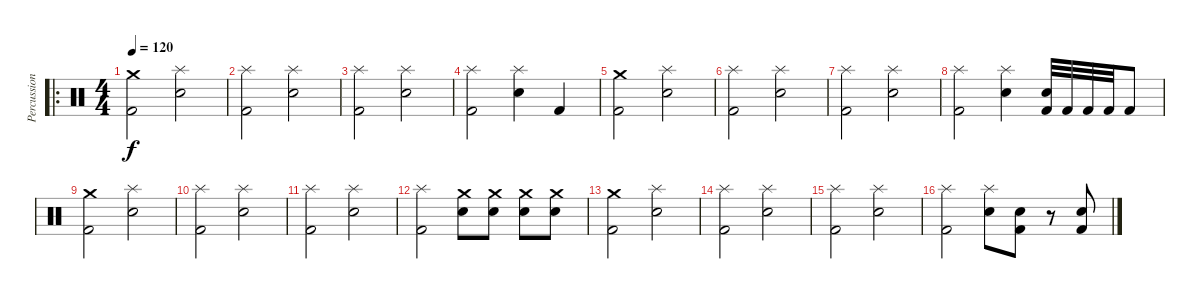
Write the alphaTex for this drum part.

\track ("Percussion" "Percussion") {instrument percussion}
\staff {score}
\articulation defaults
\ro
\ts (4 4)
\tempo 120
\clef neutral
\ks c
("Crash medium (hit)" "Kick (hit) 2").2{dy f} ("Splash (hit)" "Electric Snare (hit)").2 |
("Splash (hit)" "Kick (hit) 2").2 ("Splash (hit)" "Electric Snare (hit)").2 |
("Splash (hit)" "Kick (hit) 2").2 ("Splash (hit)" "Electric Snare (hit)").2 |
("Splash (hit)" "Kick (hit) 2").2 ("Splash (hit)" "Electric Snare (hit)").4 "Kick (hit) 2".4 |
("Crash medium (hit)" "Kick (hit) 2").2 ("Splash (hit)" "Electric Snare (hit)").2 |
("Splash (hit)" "Kick (hit) 2").2 ("Splash (hit)" "Electric Snare (hit)").2 |
("Splash (hit)" "Kick (hit) 2").2 ("Splash (hit)" "Electric Snare (hit)").2 |
("Splash (hit)" "Kick (hit) 2").2 ("Splash (hit)" "Electric Snare (hit)").4 ("Electric Snare (hit)" "Kick (hit) 2").32 "Kick (hit) 2".32 "Kick (hit) 2".32 "Kick (hit) 2".32 "Kick (hit) 2".8 |
("Crash medium (hit)" "Kick (hit) 2").2 ("Splash (hit)" "Electric Snare (hit)").2 |
("Splash (hit)" "Kick (hit) 2").2 ("Splash (hit)" "Electric Snare (hit)").2 |
("Splash (hit)" "Kick (hit) 2").2 ("Splash (hit)" "Electric Snare (hit)").2 |
("Splash (hit)" "Kick (hit) 2").2 ("Crash medium (hit)" "Electric Snare (hit)").8 ("Crash medium (hit)" "Electric Snare (hit)").8 ("Crash medium (hit)" "Electric Snare (hit)").8 ("Crash medium (hit)" "Electric Snare (hit)").8 |
("Crash medium (hit)" "Kick (hit) 2").2 ("Splash (hit)" "Electric Snare (hit)").2 |
("Splash (hit)" "Kick (hit) 2").2 ("Splash (hit)" "Electric Snare (hit)").2 |
("Splash (hit)" "Kick (hit) 2").2 ("Splash (hit)" "Electric Snare (hit)").2 |
("Splash (hit)" "Kick (hit) 2").2 ("Splash (hit)" "Electric Snare (hit)").8 ("Electric Snare (hit)" "Kick (hit) 2").8 r.8 ("Electric Snare (hit)" "Kick (hit) 2").8
